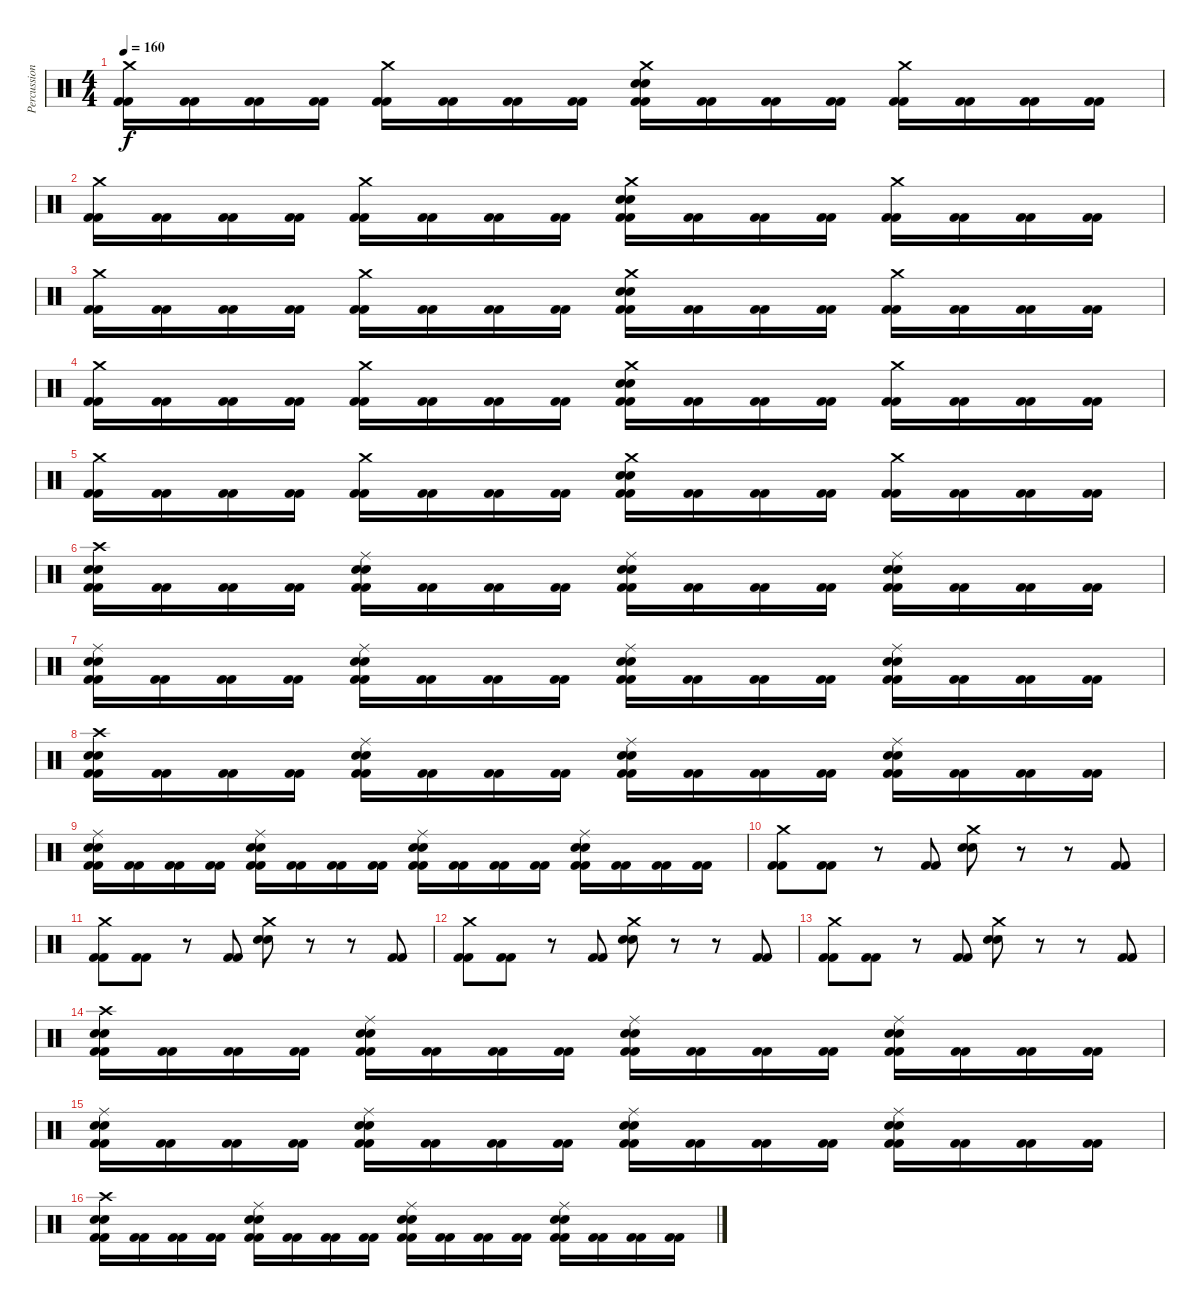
\track ("Percussion" "Percussion") {instrument percussion}
\staff {score}
\articulation defaults
\ts (4 4)
\tempo 160
\clef neutral
\ks c
("Crash medium (hit)" "Kick (hit) 2" "Kick (hit) 2").16{dy f} ("Kick (hit) 2" "Kick (hit) 2").16 ("Kick (hit) 2" "Kick (hit) 2").16 ("Kick (hit) 2" "Kick (hit) 2").16 ("Crash medium (hit)" "Kick (hit) 2" "Kick (hit) 2").16 ("Kick (hit) 2" "Kick (hit) 2").16 ("Kick (hit) 2" "Kick (hit) 2").16 ("Kick (hit) 2" "Kick (hit) 2").16 ("Crash medium (hit)" "Snare (hit) 2" "Snare (hit) 2" "Kick (hit) 2" "Kick (hit) 2").16 ("Kick (hit) 2" "Kick (hit) 2").16 ("Kick (hit) 2" "Kick (hit) 2").16 ("Kick (hit) 2" "Kick (hit) 2").16 ("Crash medium (hit)" "Kick (hit) 2" "Kick (hit) 2").16 ("Kick (hit) 2" "Kick (hit) 2").16 ("Kick (hit) 2" "Kick (hit) 2").16 ("Kick (hit) 2" "Kick (hit) 2").16 |
("Crash medium (hit)" "Kick (hit) 2" "Kick (hit) 2").16 ("Kick (hit) 2" "Kick (hit) 2").16 ("Kick (hit) 2" "Kick (hit) 2").16 ("Kick (hit) 2" "Kick (hit) 2").16 ("Crash medium (hit)" "Kick (hit) 2" "Kick (hit) 2").16 ("Kick (hit) 2" "Kick (hit) 2").16 ("Kick (hit) 2" "Kick (hit) 2").16 ("Kick (hit) 2" "Kick (hit) 2").16 ("Crash medium (hit)" "Snare (hit) 2" "Snare (hit) 2" "Kick (hit) 2" "Kick (hit) 2").16 ("Kick (hit) 2" "Kick (hit) 2").16 ("Kick (hit) 2" "Kick (hit) 2").16 ("Kick (hit) 2" "Kick (hit) 2").16 ("Crash medium (hit)" "Kick (hit) 2" "Kick (hit) 2").16 ("Kick (hit) 2" "Kick (hit) 2").16 ("Kick (hit) 2" "Kick (hit) 2").16 ("Kick (hit) 2" "Kick (hit) 2").16 |
("Crash medium (hit)" "Kick (hit) 2" "Kick (hit) 2").16 ("Kick (hit) 2" "Kick (hit) 2").16 ("Kick (hit) 2" "Kick (hit) 2").16 ("Kick (hit) 2" "Kick (hit) 2").16 ("Crash medium (hit)" "Kick (hit) 2" "Kick (hit) 2").16 ("Kick (hit) 2" "Kick (hit) 2").16 ("Kick (hit) 2" "Kick (hit) 2").16 ("Kick (hit) 2" "Kick (hit) 2").16 ("Crash medium (hit)" "Snare (hit) 2" "Snare (hit) 2" "Kick (hit) 2" "Kick (hit) 2").16 ("Kick (hit) 2" "Kick (hit) 2").16 ("Kick (hit) 2" "Kick (hit) 2").16 ("Kick (hit) 2" "Kick (hit) 2").16 ("Crash medium (hit)" "Kick (hit) 2" "Kick (hit) 2").16 ("Kick (hit) 2" "Kick (hit) 2").16 ("Kick (hit) 2" "Kick (hit) 2").16 ("Kick (hit) 2" "Kick (hit) 2").16 |
("Crash medium (hit)" "Kick (hit) 2" "Kick (hit) 2").16 ("Kick (hit) 2" "Kick (hit) 2").16 ("Kick (hit) 2" "Kick (hit) 2").16 ("Kick (hit) 2" "Kick (hit) 2").16 ("Crash medium (hit)" "Kick (hit) 2" "Kick (hit) 2").16 ("Kick (hit) 2" "Kick (hit) 2").16 ("Kick (hit) 2" "Kick (hit) 2").16 ("Kick (hit) 2" "Kick (hit) 2").16 ("Crash medium (hit)" "Snare (hit) 2" "Snare (hit) 2" "Kick (hit) 2" "Kick (hit) 2").16 ("Kick (hit) 2" "Kick (hit) 2").16 ("Kick (hit) 2" "Kick (hit) 2").16 ("Kick (hit) 2" "Kick (hit) 2").16 ("Crash medium (hit)" "Kick (hit) 2" "Kick (hit) 2").16 ("Kick (hit) 2" "Kick (hit) 2").16 ("Kick (hit) 2" "Kick (hit) 2").16 ("Kick (hit) 2" "Kick (hit) 2").16 |
("Crash medium (hit)" "Kick (hit) 2" "Kick (hit) 2").16 ("Kick (hit) 2" "Kick (hit) 2").16 ("Kick (hit) 2" "Kick (hit) 2").16 ("Kick (hit) 2" "Kick (hit) 2").16 ("Crash medium (hit)" "Kick (hit) 2" "Kick (hit) 2").16 ("Kick (hit) 2" "Kick (hit) 2").16 ("Kick (hit) 2" "Kick (hit) 2").16 ("Kick (hit) 2" "Kick (hit) 2").16 ("Crash medium (hit)" "Snare (hit) 2" "Snare (hit) 2" "Kick (hit) 2" "Kick (hit) 2").16 ("Kick (hit) 2" "Kick (hit) 2").16 ("Kick (hit) 2" "Kick (hit) 2").16 ("Kick (hit) 2" "Kick (hit) 2").16 ("Crash medium (hit)" "Kick (hit) 2" "Kick (hit) 2").16 ("Kick (hit) 2" "Kick (hit) 2").16 ("Kick (hit) 2" "Kick (hit) 2").16 ("Kick (hit) 2" "Kick (hit) 2").16 |
("Crash high (hit)" "Snare (hit) 2" "Snare (hit) 2" "Kick (hit) 2" "Kick (hit) 2").16 ("Kick (hit) 2" "Kick (hit) 2").16 ("Kick (hit) 2" "Kick (hit) 2").16 ("Kick (hit) 2" "Kick (hit) 2").16 ("Ride (middle)" "Snare (hit) 2" "Snare (hit) 2" "Kick (hit) 2" "Kick (hit) 2").16 ("Kick (hit) 2" "Kick (hit) 2").16 ("Kick (hit) 2" "Kick (hit) 2").16 ("Kick (hit) 2" "Kick (hit) 2").16 ("Ride (middle)" "Snare (hit) 2" "Snare (hit) 2" "Kick (hit) 2" "Kick (hit) 2").16 ("Kick (hit) 2" "Kick (hit) 2").16 ("Kick (hit) 2" "Kick (hit) 2").16 ("Kick (hit) 2" "Kick (hit) 2").16 ("Ride (middle)" "Snare (hit) 2" "Snare (hit) 2" "Kick (hit) 2" "Kick (hit) 2").16 ("Kick (hit) 2" "Kick (hit) 2").16 ("Kick (hit) 2" "Kick (hit) 2").16 ("Kick (hit) 2" "Kick (hit) 2").16 |
("Ride (middle)" "Snare (hit) 2" "Snare (hit) 2" "Kick (hit) 2" "Kick (hit) 2").16 ("Kick (hit) 2" "Kick (hit) 2").16 ("Kick (hit) 2" "Kick (hit) 2").16 ("Kick (hit) 2" "Kick (hit) 2").16 ("Ride (middle)" "Snare (hit) 2" "Snare (hit) 2" "Kick (hit) 2" "Kick (hit) 2").16 ("Kick (hit) 2" "Kick (hit) 2").16 ("Kick (hit) 2" "Kick (hit) 2").16 ("Kick (hit) 2" "Kick (hit) 2").16 ("Ride (middle)" "Snare (hit) 2" "Snare (hit) 2" "Kick (hit) 2" "Kick (hit) 2").16 ("Kick (hit) 2" "Kick (hit) 2").16 ("Kick (hit) 2" "Kick (hit) 2").16 ("Kick (hit) 2" "Kick (hit) 2").16 ("Ride (middle)" "Snare (hit) 2" "Snare (hit) 2" "Kick (hit) 2" "Kick (hit) 2").16 ("Kick (hit) 2" "Kick (hit) 2").16 ("Kick (hit) 2" "Kick (hit) 2").16 ("Kick (hit) 2" "Kick (hit) 2").16 |
("Crash high (hit)" "Snare (hit) 2" "Snare (hit) 2" "Kick (hit) 2" "Kick (hit) 2").16 ("Kick (hit) 2" "Kick (hit) 2").16 ("Kick (hit) 2" "Kick (hit) 2").16 ("Kick (hit) 2" "Kick (hit) 2").16 ("Ride (middle)" "Snare (hit) 2" "Snare (hit) 2" "Kick (hit) 2" "Kick (hit) 2").16 ("Kick (hit) 2" "Kick (hit) 2").16 ("Kick (hit) 2" "Kick (hit) 2").16 ("Kick (hit) 2" "Kick (hit) 2").16 ("Ride (middle)" "Snare (hit) 2" "Snare (hit) 2" "Kick (hit) 2" "Kick (hit) 2").16 ("Kick (hit) 2" "Kick (hit) 2").16 ("Kick (hit) 2" "Kick (hit) 2").16 ("Kick (hit) 2" "Kick (hit) 2").16 ("Ride (middle)" "Snare (hit) 2" "Snare (hit) 2" "Kick (hit) 2" "Kick (hit) 2").16 ("Kick (hit) 2" "Kick (hit) 2").16 ("Kick (hit) 2" "Kick (hit) 2").16 ("Kick (hit) 2" "Kick (hit) 2").16 |
("Ride (middle)" "Snare (hit) 2" "Snare (hit) 2" "Kick (hit) 2" "Kick (hit) 2").16 ("Kick (hit) 2" "Kick (hit) 2").16 ("Kick (hit) 2" "Kick (hit) 2").16 ("Kick (hit) 2" "Kick (hit) 2").16 ("Ride (middle)" "Snare (hit) 2" "Snare (hit) 2" "Kick (hit) 2" "Kick (hit) 2").16 ("Kick (hit) 2" "Kick (hit) 2").16 ("Kick (hit) 2" "Kick (hit) 2").16 ("Kick (hit) 2" "Kick (hit) 2").16 ("Ride (middle)" "Snare (hit) 2" "Snare (hit) 2" "Kick (hit) 2" "Kick (hit) 2").16 ("Kick (hit) 2" "Kick (hit) 2").16 ("Kick (hit) 2" "Kick (hit) 2").16 ("Kick (hit) 2" "Kick (hit) 2").16 ("Ride (middle)" "Snare (hit) 2" "Snare (hit) 2" "Kick (hit) 2" "Kick (hit) 2").16 ("Kick (hit) 2" "Kick (hit) 2").16 ("Kick (hit) 2" "Kick (hit) 2").16 ("Kick (hit) 2" "Kick (hit) 2").16 |
("Crash medium (hit)" "Kick (hit) 2" "Kick (hit) 2").8 ("Kick (hit) 2" "Kick (hit) 2").8 r.8 ("Kick (hit) 2" "Kick (hit) 2").8 ("Crash medium (hit)" "Snare (hit) 2" "Snare (hit) 2").8 r.8 r.8 ("Kick (hit) 2" "Kick (hit) 2").8 |
("Crash medium (hit)" "Kick (hit) 2" "Kick (hit) 2").8 ("Kick (hit) 2" "Kick (hit) 2").8 r.8 ("Kick (hit) 2" "Kick (hit) 2").8 ("Crash medium (hit)" "Snare (hit) 2" "Snare (hit) 2").8 r.8 r.8 ("Kick (hit) 2" "Kick (hit) 2").8 |
("Crash medium (hit)" "Kick (hit) 2" "Kick (hit) 2").8 ("Kick (hit) 2" "Kick (hit) 2").8 r.8 ("Kick (hit) 2" "Kick (hit) 2").8 ("Crash medium (hit)" "Snare (hit) 2" "Snare (hit) 2").8 r.8 r.8 ("Kick (hit) 2" "Kick (hit) 2").8 |
("Crash medium (hit)" "Kick (hit) 2" "Kick (hit) 2").8 ("Kick (hit) 2" "Kick (hit) 2").8 r.8 ("Kick (hit) 2" "Kick (hit) 2").8 ("Crash medium (hit)" "Snare (hit) 2" "Snare (hit) 2").8 r.8 r.8 ("Kick (hit) 2" "Kick (hit) 2").8 |
("Crash high (hit)" "Snare (hit) 2" "Snare (hit) 2" "Kick (hit) 2" "Kick (hit) 2").16 ("Kick (hit) 2" "Kick (hit) 2").16 ("Kick (hit) 2" "Kick (hit) 2").16 ("Kick (hit) 2" "Kick (hit) 2").16 ("Ride (middle)" "Snare (hit) 2" "Snare (hit) 2" "Kick (hit) 2" "Kick (hit) 2").16 ("Kick (hit) 2" "Kick (hit) 2").16 ("Kick (hit) 2" "Kick (hit) 2").16 ("Kick (hit) 2" "Kick (hit) 2").16 ("Ride (middle)" "Snare (hit) 2" "Snare (hit) 2" "Kick (hit) 2" "Kick (hit) 2").16 ("Kick (hit) 2" "Kick (hit) 2").16 ("Kick (hit) 2" "Kick (hit) 2").16 ("Kick (hit) 2" "Kick (hit) 2").16 ("Ride (middle)" "Snare (hit) 2" "Snare (hit) 2" "Kick (hit) 2" "Kick (hit) 2").16 ("Kick (hit) 2" "Kick (hit) 2").16 ("Kick (hit) 2" "Kick (hit) 2").16 ("Kick (hit) 2" "Kick (hit) 2").16 |
("Ride (middle)" "Snare (hit) 2" "Snare (hit) 2" "Kick (hit) 2" "Kick (hit) 2").16 ("Kick (hit) 2" "Kick (hit) 2").16 ("Kick (hit) 2" "Kick (hit) 2").16 ("Kick (hit) 2" "Kick (hit) 2").16 ("Ride (middle)" "Snare (hit) 2" "Snare (hit) 2" "Kick (hit) 2" "Kick (hit) 2").16 ("Kick (hit) 2" "Kick (hit) 2").16 ("Kick (hit) 2" "Kick (hit) 2").16 ("Kick (hit) 2" "Kick (hit) 2").16 ("Ride (middle)" "Snare (hit) 2" "Snare (hit) 2" "Kick (hit) 2" "Kick (hit) 2").16 ("Kick (hit) 2" "Kick (hit) 2").16 ("Kick (hit) 2" "Kick (hit) 2").16 ("Kick (hit) 2" "Kick (hit) 2").16 ("Ride (middle)" "Snare (hit) 2" "Snare (hit) 2" "Kick (hit) 2" "Kick (hit) 2").16 ("Kick (hit) 2" "Kick (hit) 2").16 ("Kick (hit) 2" "Kick (hit) 2").16 ("Kick (hit) 2" "Kick (hit) 2").16 |
("Crash high (hit)" "Snare (hit) 2" "Snare (hit) 2" "Kick (hit) 2" "Kick (hit) 2").16 ("Kick (hit) 2" "Kick (hit) 2").16 ("Kick (hit) 2" "Kick (hit) 2").16 ("Kick (hit) 2" "Kick (hit) 2").16 ("Ride (middle)" "Snare (hit) 2" "Snare (hit) 2" "Kick (hit) 2" "Kick (hit) 2").16 ("Kick (hit) 2" "Kick (hit) 2").16 ("Kick (hit) 2" "Kick (hit) 2").16 ("Kick (hit) 2" "Kick (hit) 2").16 ("Ride (middle)" "Snare (hit) 2" "Snare (hit) 2" "Kick (hit) 2" "Kick (hit) 2").16 ("Kick (hit) 2" "Kick (hit) 2").16 ("Kick (hit) 2" "Kick (hit) 2").16 ("Kick (hit) 2" "Kick (hit) 2").16 ("Ride (middle)" "Snare (hit) 2" "Snare (hit) 2" "Kick (hit) 2" "Kick (hit) 2").16 ("Kick (hit) 2" "Kick (hit) 2").16 ("Kick (hit) 2" "Kick (hit) 2").16 ("Kick (hit) 2" "Kick (hit) 2").16
